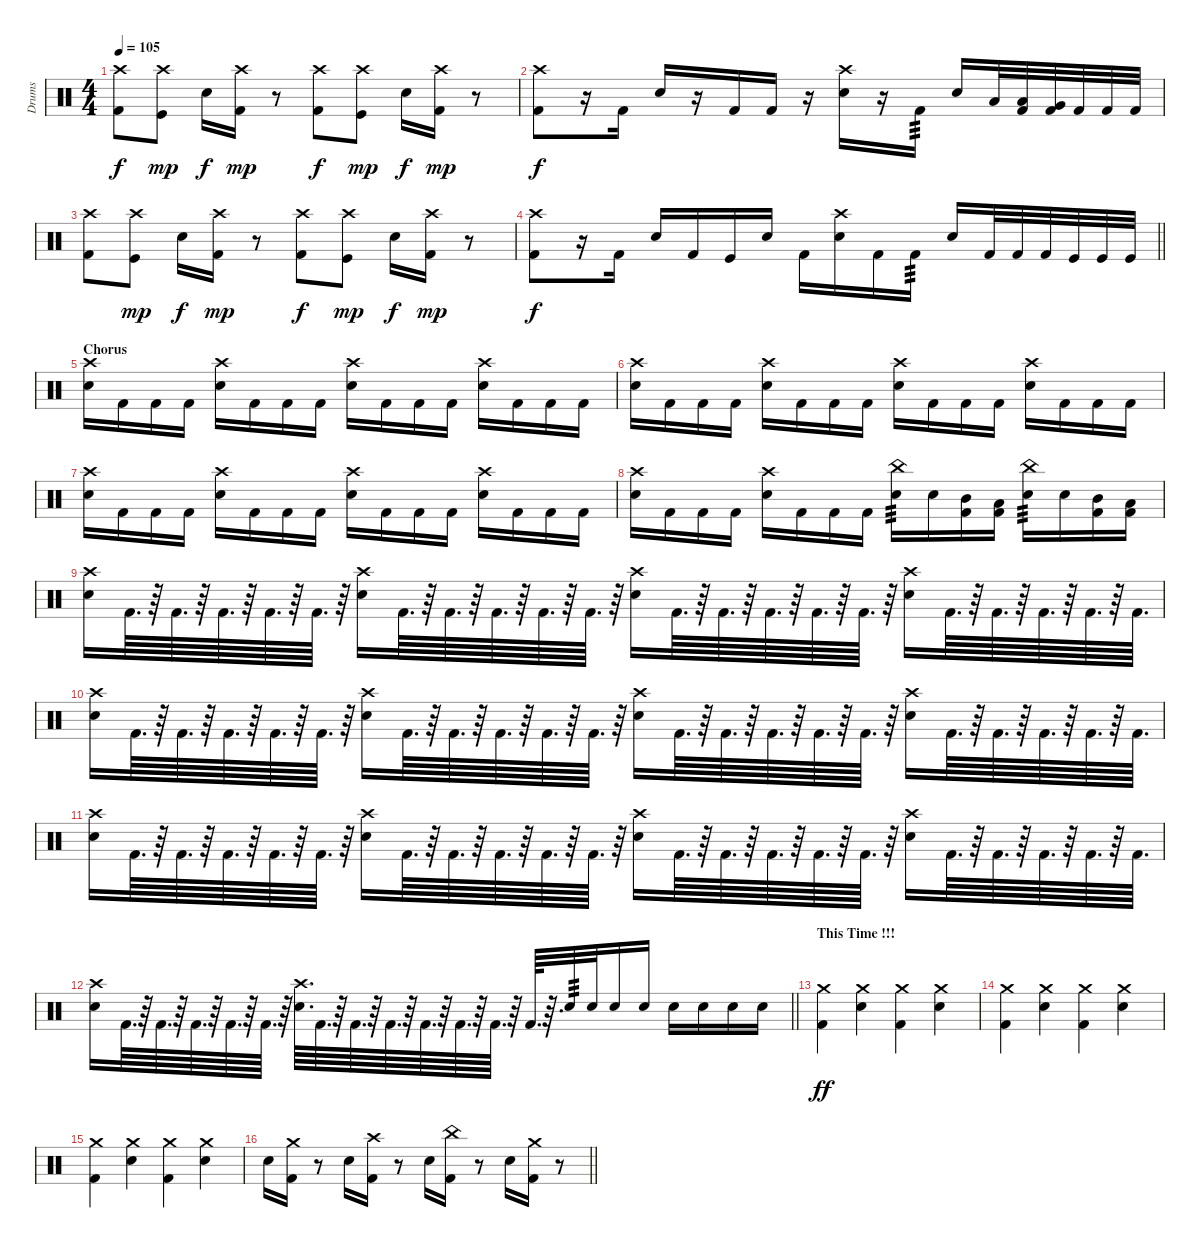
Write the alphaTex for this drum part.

\track ("Drums" "Drums") {instrument percussion}
\staff {score}
\articulation defaults
\ts (4 4)
\tempo 105
\clef neutral
\ks c
("Crash high (hit)" "Kick (hit) 2").8{dy f} ("Crash high (hit)" "Kick (hit)").8{dy mp} "Snare (hit) 2".16{dy f} ("Crash high (hit)" "Kick (hit) 2").16{dy mp} r.8 ("Crash high (hit)" "Kick (hit) 2").8{dy f} ("Crash high (hit)" "Kick (hit)").8{dy mp} "Snare (hit) 2".16{dy f} ("Crash high (hit)" "Kick (hit) 2").16{dy mp} r.8 |
("Crash high (hit)" "Kick (hit) 2").8{dy f} r.16 "Kick (hit) 2".16 "Snare (hit) 2".16 r.16 "Kick (hit) 2".16 "Kick (hit) 2".16 r.16 ("Crash high (hit)" "Snare (hit) 2").16 r.16 "Kick (hit) 2".16{tp 3} "Snare (hit) 2".16 "Low Tom (hit)".32 ("Low Tom (hit)" "Kick (hit) 2").32 ("Very Low Tom (hit)" "Kick (hit) 2").32 "Kick (hit) 2".32 "Kick (hit) 2".32 "Kick (hit) 2".32 |
("Crash high (hit)" "Kick (hit) 2").8 ("Crash high (hit)" "Kick (hit)").8{dy mp} "Snare (hit) 2".16{dy f} ("Crash high (hit)" "Kick (hit) 2").16{dy mp} r.8 ("Crash high (hit)" "Kick (hit) 2").8{dy f} ("Crash high (hit)" "Kick (hit)").8{dy mp} "Snare (hit) 2".16{dy f} ("Crash high (hit)" "Kick (hit) 2").16{dy mp} r.8 |
\barLineRight lightlight
("Crash high (hit)" "Kick (hit) 2").8{dy f} r.16 "Kick (hit) 2".16 "Snare (hit) 2".16 "Kick (hit) 2".16 "Kick (hit)".16 "Snare (hit) 2".16 "Kick (hit) 2".16 ("Crash high (hit)" "Snare (hit) 2").16 "Kick (hit) 2".16 "Kick (hit) 2".16{tp 3} "Snare (hit) 2".16 "Kick (hit) 2".32 "Kick (hit) 2".32 "Kick (hit) 2".32 "Kick (hit)".32 "Kick (hit)".32 "Kick (hit)".32 |
\section ("" "Chorus")
("Crash high (hit)" "Snare (hit) 2").16 "Kick (hit) 2".16 "Kick (hit) 2".16 "Kick (hit) 2".16 ("Crash high (hit)" "Snare (hit) 2").16 "Kick (hit) 2".16 "Kick (hit) 2".16 "Kick (hit) 2".16 ("Crash high (hit)" "Snare (hit) 2").16 "Kick (hit) 2".16 "Kick (hit) 2".16 "Kick (hit) 2".16 ("Crash high (hit)" "Snare (hit) 2").16 "Kick (hit) 2".16 "Kick (hit) 2".16 "Kick (hit) 2".16 |
("Crash high (hit)" "Snare (hit) 2").16 "Kick (hit) 2".16 "Kick (hit) 2".16 "Kick (hit) 2".16 ("Crash high (hit)" "Snare (hit) 2").16 "Kick (hit) 2".16 "Kick (hit) 2".16 "Kick (hit) 2".16 ("Crash high (hit)" "Snare (hit) 2").16 "Kick (hit) 2".16 "Kick (hit) 2".16 "Kick (hit) 2".16 ("Crash high (hit)" "Snare (hit) 2").16 "Kick (hit) 2".16 "Kick (hit) 2".16 "Kick (hit) 2".16 |
("Crash high (hit)" "Snare (hit) 2").16 "Kick (hit) 2".16 "Kick (hit) 2".16 "Kick (hit) 2".16 ("Crash high (hit)" "Snare (hit) 2").16 "Kick (hit) 2".16 "Kick (hit) 2".16 "Kick (hit) 2".16 ("Crash high (hit)" "Snare (hit) 2").16 "Kick (hit) 2".16 "Kick (hit) 2".16 "Kick (hit) 2".16 ("Crash high (hit)" "Snare (hit) 2").16 "Kick (hit) 2".16 "Kick (hit) 2".16 "Kick (hit) 2".16 |
("Crash high (hit)" "Snare (hit) 2").16 "Kick (hit) 2".16 "Kick (hit) 2".16 "Kick (hit) 2".16 ("Crash high (hit)" "Snare (hit) 2").16 "Kick (hit) 2".16 "Kick (hit) 2".16 "Kick (hit) 2".16 ("China (hit)" "Snare (hit) 2").16{tp 3} "Snare (hit) 2".16 ("Mid Tom (hit)" "Kick (hit) 2").16 ("Low Tom (hit)" "Kick (hit) 2").16 ("China (hit)" "Snare (hit) 2").16{tp 3} "Snare (hit) 2".16 ("Mid Tom (hit)" "Kick (hit) 2").16 ("Low Tom (hit)" "Kick (hit) 2").16 |
("Crash high (hit)" "Snare (hit) 2").16 "Kick (hit) 2".64{d} r.64 "Kick (hit) 2".64{d} r.64 "Kick (hit) 2".64{d} r.64 "Kick (hit) 2".64{d} r.64 "Kick (hit) 2".64{d} r.64 ("Crash high (hit)" "Snare (hit) 2").16 "Kick (hit) 2".64{d} r.64 "Kick (hit) 2".64{d} r.64 "Kick (hit) 2".64{d} r.64 "Kick (hit) 2".64{d} r.64 "Kick (hit) 2".64{d} r.64 ("Crash high (hit)" "Snare (hit) 2").16 "Kick (hit) 2".64{d} r.64 "Kick (hit) 2".64{d} r.64 "Kick (hit) 2".64{d} r.64 "Kick (hit) 2".64{d} r.64 "Kick (hit) 2".64{d} r.64 ("Crash high (hit)" "Snare (hit) 2").16 "Kick (hit) 2".64{d} r.64 "Kick (hit) 2".64{d} r.64 "Kick (hit) 2".64{d} r.64 "Kick (hit) 2".64{d} r.64 "Kick (hit) 2".64{d} |
("Crash high (hit)" "Snare (hit) 2").16 "Kick (hit) 2".64{d} r.64 "Kick (hit) 2".64{d} r.64 "Kick (hit) 2".64{d} r.64 "Kick (hit) 2".64{d} r.64 "Kick (hit) 2".64{d} r.64 ("Crash high (hit)" "Snare (hit) 2").16 "Kick (hit) 2".64{d} r.64 "Kick (hit) 2".64{d} r.64 "Kick (hit) 2".64{d} r.64 "Kick (hit) 2".64{d} r.64 "Kick (hit) 2".64{d} r.64 ("Crash high (hit)" "Snare (hit) 2").16 "Kick (hit) 2".64{d} r.64 "Kick (hit) 2".64{d} r.64 "Kick (hit) 2".64{d} r.64 "Kick (hit) 2".64{d} r.64 "Kick (hit) 2".64{d} r.64 ("Crash high (hit)" "Snare (hit) 2").16 "Kick (hit) 2".64{d} r.64 "Kick (hit) 2".64{d} r.64 "Kick (hit) 2".64{d} r.64 "Kick (hit) 2".64{d} r.64 "Kick (hit) 2".64{d} |
("Crash high (hit)" "Snare (hit) 2").16 "Kick (hit) 2".64{d} r.64 "Kick (hit) 2".64{d} r.64 "Kick (hit) 2".64{d} r.64 "Kick (hit) 2".64{d} r.64 "Kick (hit) 2".64{d} r.64 ("Crash high (hit)" "Snare (hit) 2").16 "Kick (hit) 2".64{d} r.64 "Kick (hit) 2".64{d} r.64 "Kick (hit) 2".64{d} r.64 "Kick (hit) 2".64{d} r.64 "Kick (hit) 2".64{d} r.64 ("Crash high (hit)" "Snare (hit) 2").16 "Kick (hit) 2".64{d} r.64 "Kick (hit) 2".64{d} r.64 "Kick (hit) 2".64{d} r.64 "Kick (hit) 2".64{d} r.64 "Kick (hit) 2".64{d} r.64 ("Crash high (hit)" "Snare (hit) 2").16 "Kick (hit) 2".64{d} r.64 "Kick (hit) 2".64{d} r.64 "Kick (hit) 2".64{d} r.64 "Kick (hit) 2".64{d} r.64 "Kick (hit) 2".64{d} |
\barLineRight lightlight
("Crash high (hit)" "Snare (hit) 2").16 "Kick (hit) 2".64{d} r.64 "Kick (hit) 2".64{d} r.64 "Kick (hit) 2".64{d} r.64 "Kick (hit) 2".64{d} r.64 "Kick (hit) 2".64{d} r.64 ("Crash high (hit)" "Snare (hit) 2").64{d} "Kick (hit) 2".64{d} r.64 "Kick (hit) 2".64{d} r.64 "Kick (hit) 2".64{d} r.64 "Kick (hit) 2".64{d} r.64 "Kick (hit) 2".64{d} r.64 "Kick (hit) 2".64{d} r.64 "Kick (hit) 2".64{d} r.64{d} "Snare (hit) 2".32{tp 3} "Snare (hit) 2".32 "Snare (hit) 2".16 "Snare (hit) 2".16 "Snare (hit) 2".16 "Snare (hit) 2".16 "Snare (hit) 2".16 "Snare (hit) 2".16 |
\section ("" "This Time !!!")
("Crash medium (hit)" "Kick (hit) 2").4{dy ff} ("Crash medium (hit)" "Snare (hit) 2").4 ("Crash medium (hit)" "Kick (hit) 2").4 ("Crash medium (hit)" "Snare (hit) 2").4 |
("Crash medium (hit)" "Kick (hit) 2").4 ("Crash medium (hit)" "Snare (hit) 2").4 ("Crash medium (hit)" "Kick (hit) 2").4 ("Crash medium (hit)" "Snare (hit) 2").4 |
("Crash medium (hit)" "Kick (hit) 2").4 ("Crash medium (hit)" "Snare (hit) 2").4 ("Crash medium (hit)" "Kick (hit) 2").4 ("Crash medium (hit)" "Snare (hit) 2").4 |
\barLineRight lightlight "Snare (hit) 2".16
("Crash medium (hit)" "Kick (hit) 2").16 r.8 "Snare (hit) 2".16 ("Crash high (hit)" "Kick (hit) 2").16 r.8 "Snare (hit) 2".16 ("China (hit)" "Kick (hit) 2").16 r.8 "Snare (hit) 2".16 ("Crash medium (hit)" "Kick (hit) 2").16 r.8
